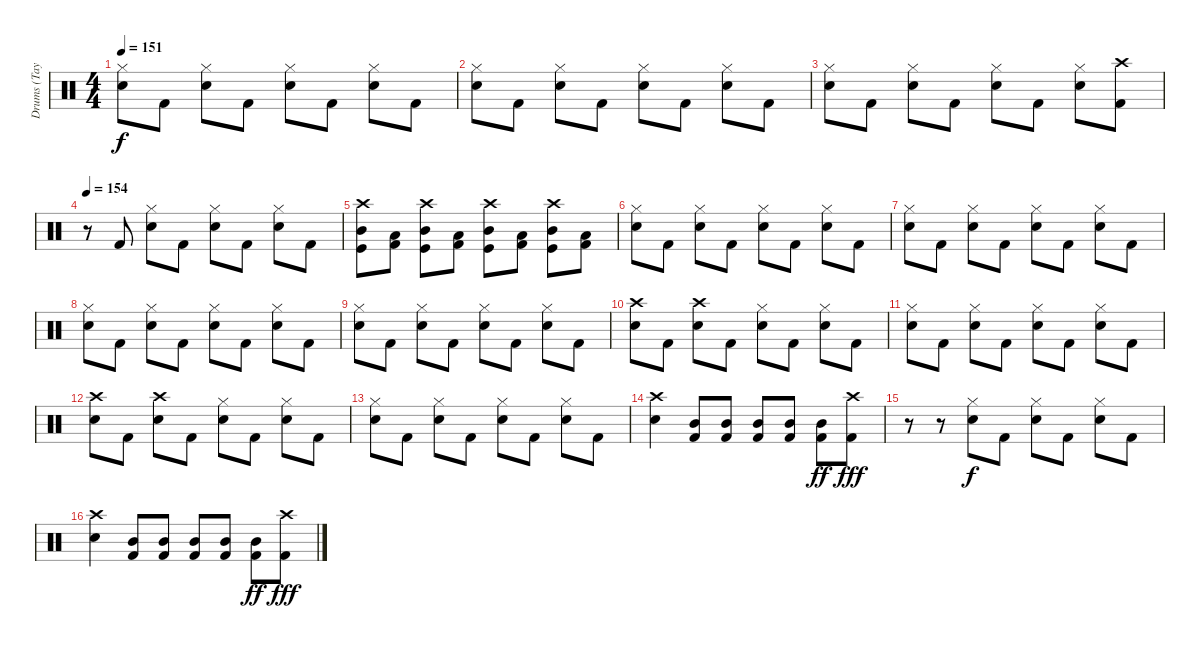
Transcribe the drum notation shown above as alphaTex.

\track ("Drums (Taylor)" "Drums (Tay") {instrument percussion}
\staff {score}
\articulation defaults
\ts (4 4)
\tempo 151
\clef neutral
\ks c
("Hi-Hat (closed)" "Electric Snare (hit)").8{dy f} "Kick (hit) 2".8 ("Hi-Hat (closed)" "Electric Snare (hit)").8 "Kick (hit) 2".8 ("Hi-Hat (closed)" "Electric Snare (hit)").8 "Kick (hit) 2".8 ("Hi-Hat (closed)" "Electric Snare (hit)").8 "Kick (hit) 2".8 |
("Hi-Hat (closed)" "Electric Snare (hit)").8 "Kick (hit) 2".8 ("Hi-Hat (closed)" "Electric Snare (hit)").8 "Kick (hit) 2".8 ("Hi-Hat (closed)" "Electric Snare (hit)").8 "Kick (hit) 2".8 ("Hi-Hat (closed)" "Electric Snare (hit)").8 "Kick (hit) 2".8 |
("Hi-Hat (closed)" "Electric Snare (hit)").8 "Kick (hit) 2".8 ("Hi-Hat (closed)" "Electric Snare (hit)").8 "Kick (hit) 2".8 ("Hi-Hat (closed)" "Electric Snare (hit)").8 "Kick (hit) 2".8 ("Hi-Hat (closed)" "Electric Snare (hit)").8 ("Crash high (hit)" "Kick (hit) 2").8 |
\tempo 154
r.8 "Kick (hit) 2".8 ("Hi-Hat (closed)" "Electric Snare (hit)").8 "Kick (hit) 2".8 ("Hi-Hat (closed)" "Electric Snare (hit)").8 "Kick (hit) 2".8 ("Hi-Hat (closed)" "Electric Snare (hit)").8 "Kick (hit) 2".8 |
("Crash high (hit)" "Kick (hit)" "Mid Tom (hit)").8 ("Kick (hit) 2" "Low Tom (hit)").8 ("Crash high (hit)" "Kick (hit)" "Mid Tom (hit)").8 ("Kick (hit) 2" "Low Tom (hit)").8 ("Crash high (hit)" "Kick (hit)" "Mid Tom (hit)").8 ("Kick (hit) 2" "Low Tom (hit)").8 ("Crash high (hit)" "Kick (hit)" "Mid Tom (hit)").8 ("Kick (hit) 2" "Low Tom (hit)").8 |
("Hi-Hat (closed)" "Electric Snare (hit)").8 "Kick (hit) 2".8 ("Hi-Hat (closed)" "Electric Snare (hit)").8 "Kick (hit) 2".8 ("Hi-Hat (closed)" "Electric Snare (hit)").8 "Kick (hit) 2".8 ("Hi-Hat (closed)" "Electric Snare (hit)").8 "Kick (hit) 2".8 |
("Hi-Hat (closed)" "Electric Snare (hit)").8 "Kick (hit) 2".8 ("Hi-Hat (closed)" "Electric Snare (hit)").8 "Kick (hit) 2".8 ("Hi-Hat (closed)" "Electric Snare (hit)").8 "Kick (hit) 2".8 ("Hi-Hat (closed)" "Electric Snare (hit)").8 "Kick (hit) 2".8 |
("Hi-Hat (closed)" "Electric Snare (hit)").8 "Kick (hit) 2".8 ("Hi-Hat (closed)" "Electric Snare (hit)").8 "Kick (hit) 2".8 ("Hi-Hat (closed)" "Electric Snare (hit)").8 "Kick (hit) 2".8 ("Hi-Hat (closed)" "Electric Snare (hit)").8 "Kick (hit) 2".8 |
("Hi-Hat (closed)" "Electric Snare (hit)").8 "Kick (hit) 2".8 ("Hi-Hat (closed)" "Electric Snare (hit)").8 "Kick (hit) 2".8 ("Hi-Hat (closed)" "Electric Snare (hit)").8 "Kick (hit) 2".8 ("Hi-Hat (closed)" "Electric Snare (hit)").8 "Kick (hit) 2".8 |
("Crash high (hit)" "Electric Snare (hit)").8 "Kick (hit) 2".8 ("Crash high (hit)" "Electric Snare (hit)").8 "Kick (hit) 2".8 ("Hi-Hat (closed)" "Electric Snare (hit)").8 "Kick (hit) 2".8 ("Hi-Hat (closed)" "Electric Snare (hit)").8 "Kick (hit) 2".8 |
("Hi-Hat (closed)" "Electric Snare (hit)").8 "Kick (hit) 2".8 ("Hi-Hat (closed)" "Electric Snare (hit)").8 "Kick (hit) 2".8 ("Hi-Hat (closed)" "Electric Snare (hit)").8 "Kick (hit) 2".8 ("Hi-Hat (closed)" "Electric Snare (hit)").8 "Kick (hit) 2".8 |
("Crash high (hit)" "Electric Snare (hit)").8 "Kick (hit) 2".8 ("Crash high (hit)" "Electric Snare (hit)").8 "Kick (hit) 2".8 ("Hi-Hat (closed)" "Electric Snare (hit)").8 "Kick (hit) 2".8 ("Hi-Hat (closed)" "Electric Snare (hit)").8 "Kick (hit) 2".8 |
("Hi-Hat (closed)" "Electric Snare (hit)").8 "Kick (hit) 2".8 ("Hi-Hat (closed)" "Electric Snare (hit)").8 "Kick (hit) 2".8 ("Hi-Hat (closed)" "Electric Snare (hit)").8 "Kick (hit) 2".8 ("Hi-Hat (closed)" "Electric Snare (hit)").8 "Kick (hit) 2".8 |
("Crash high (hit)" "Electric Snare (hit)").4 ("Mid Tom (hit)" "Kick (hit) 2").8 ("Mid Tom (hit)" "Kick (hit) 2").8 ("Mid Tom (hit)" "Kick (hit) 2").8 ("Mid Tom (hit)" "Kick (hit) 2").8 ("Mid Tom (hit)" "Kick (hit) 2").8{dy ff} ("Kick (hit) 2" "Crash high (hit)").8{dy fff} |
r.8 r.8 ("Hi-Hat (closed)" "Electric Snare (hit)").8{dy f} "Kick (hit) 2".8 ("Hi-Hat (closed)" "Electric Snare (hit)").8 "Kick (hit) 2".8 ("Hi-Hat (closed)" "Electric Snare (hit)").8 "Kick (hit) 2".8 |
("Crash high (hit)" "Electric Snare (hit)").4 ("Mid Tom (hit)" "Kick (hit) 2").8 ("Mid Tom (hit)" "Kick (hit) 2").8 ("Mid Tom (hit)" "Kick (hit) 2").8 ("Mid Tom (hit)" "Kick (hit) 2").8 ("Mid Tom (hit)" "Kick (hit) 2").8{dy ff} ("Kick (hit) 2" "Crash high (hit)").8{dy fff}
